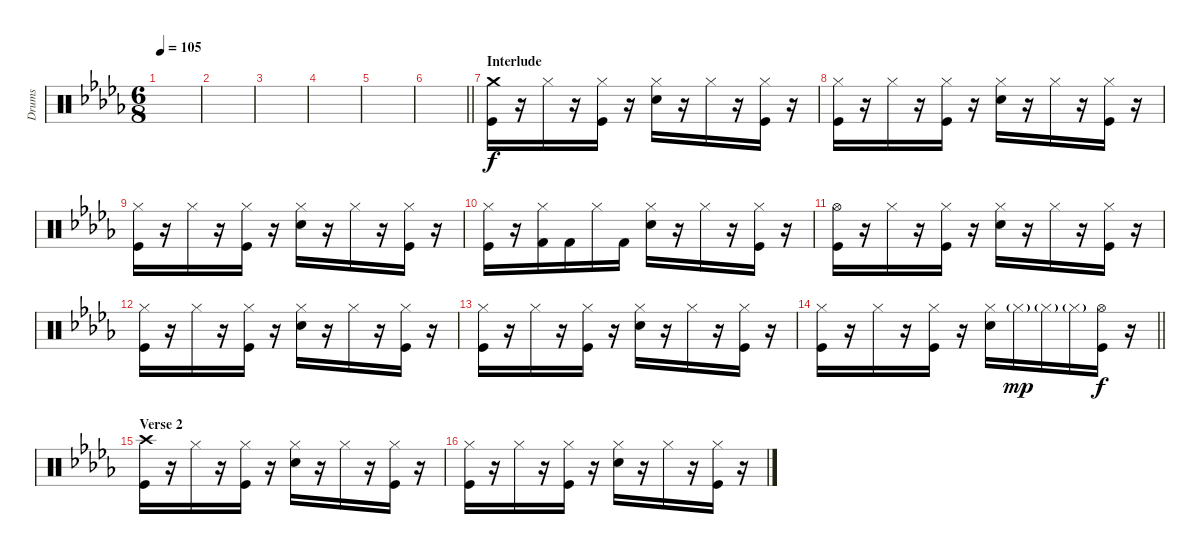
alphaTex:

\track ("Drums" "Drums") {instrument percussion}
\staff {score}
\articulation defaults
\ts (6 8)
\tempo 105
\clef neutral
\ks db
|
|
|
|
|
\barLineRight lightlight
|
\section ("" "Interlude")
("Crash medium (hit)" "Kick (hit)").16 r.16 "Hi-Hat (closed)".16 r.16 ("Hi-Hat (closed)" "Kick (hit)").16 r.16 ("Hi-Hat (closed)" "Snare (hit) 2").16 r.16 "Hi-Hat (closed)".16 r.16 ("Hi-Hat (closed)" "Kick (hit)").16 r.16 |
("Hi-Hat (closed)" "Kick (hit)").16 r.16 "Hi-Hat (closed)".16 r.16 ("Hi-Hat (closed)" "Kick (hit)").16 r.16 ("Hi-Hat (closed)" "Snare (hit) 2").16 r.16 "Hi-Hat (closed)".16 r.16 ("Hi-Hat (closed)" "Kick (hit)").16 r.16 |
("Hi-Hat (closed)" "Kick (hit)").16 r.16 "Hi-Hat (closed)".16 r.16 ("Hi-Hat (closed)" "Kick (hit)").16 r.16 ("Hi-Hat (closed)" "Snare (hit) 2").16 r.16 "Hi-Hat (closed)".16 r.16 ("Hi-Hat (closed)" "Kick (hit)").16 r.16 |
("Hi-Hat (closed)" "Kick (hit)").16 r.16 ("Hi-Hat (closed)" "Kick (hit) 2").16 "Kick (hit) 2".16 "Hi-Hat (closed)".16 "Kick (hit) 2".16 ("Hi-Hat (closed)" "Snare (hit) 2").16 r.16 "Hi-Hat (closed)".16 r.16 ("Hi-Hat (closed)" "Kick (hit)").16 r.16 |
("Hi-Hat (open)" "Kick (hit)").16 r.16 "Hi-Hat (closed)".16 r.16 ("Hi-Hat (closed)" "Kick (hit)").16 r.16 ("Hi-Hat (closed)" "Snare (hit) 2").16 r.16 "Hi-Hat (closed)".16 r.16 ("Hi-Hat (closed)" "Kick (hit)").16 r.16 |
("Hi-Hat (closed)" "Kick (hit)").16 r.16 "Hi-Hat (closed)".16 r.16 ("Hi-Hat (closed)" "Kick (hit)").16 r.16 ("Hi-Hat (closed)" "Snare (hit) 2").16 r.16 "Hi-Hat (closed)".16 r.16 ("Hi-Hat (closed)" "Kick (hit)").16 r.16 |
("Hi-Hat (closed)" "Kick (hit)").16 r.16 "Hi-Hat (closed)".16 r.16 ("Hi-Hat (closed)" "Kick (hit)").16 r.16 ("Hi-Hat (closed)" "Snare (hit) 2").16 r.16 "Hi-Hat (closed)".16 r.16 ("Hi-Hat (closed)" "Kick (hit)").16 r.16 |
\barLineRight lightlight
("Hi-Hat (closed)" "Kick (hit)").16 r.16 "Hi-Hat (closed)".16 r.16 ("Hi-Hat (closed)" "Kick (hit)").16 r.16 ("Hi-Hat (closed)" "Snare (hit) 2").16 "Hi-Hat (closed)"{g}.16{dy mp} "Hi-Hat (closed)"{g}.16 "Hi-Hat (closed)"{g}.16 ("Hi-Hat (open)" "Kick (hit)").16{dy f} r.16 |
\section ("" "Verse 2")
("Crash high (hit)" "Kick (hit)").16 r.16 "Hi-Hat (closed)".16 r.16 ("Hi-Hat (closed)" "Kick (hit)").16 r.16 ("Hi-Hat (closed)" "Snare (hit) 2").16 r.16 "Hi-Hat (closed)".16 r.16 ("Hi-Hat (closed)" "Kick (hit)").16 r.16 |
("Hi-Hat (closed)" "Kick (hit)").16 r.16 "Hi-Hat (closed)".16 r.16 ("Hi-Hat (closed)" "Kick (hit)").16 r.16 ("Hi-Hat (closed)" "Snare (hit) 2").16 r.16 "Hi-Hat (closed)".16 r.16 ("Hi-Hat (closed)" "Kick (hit)").16 r.16
